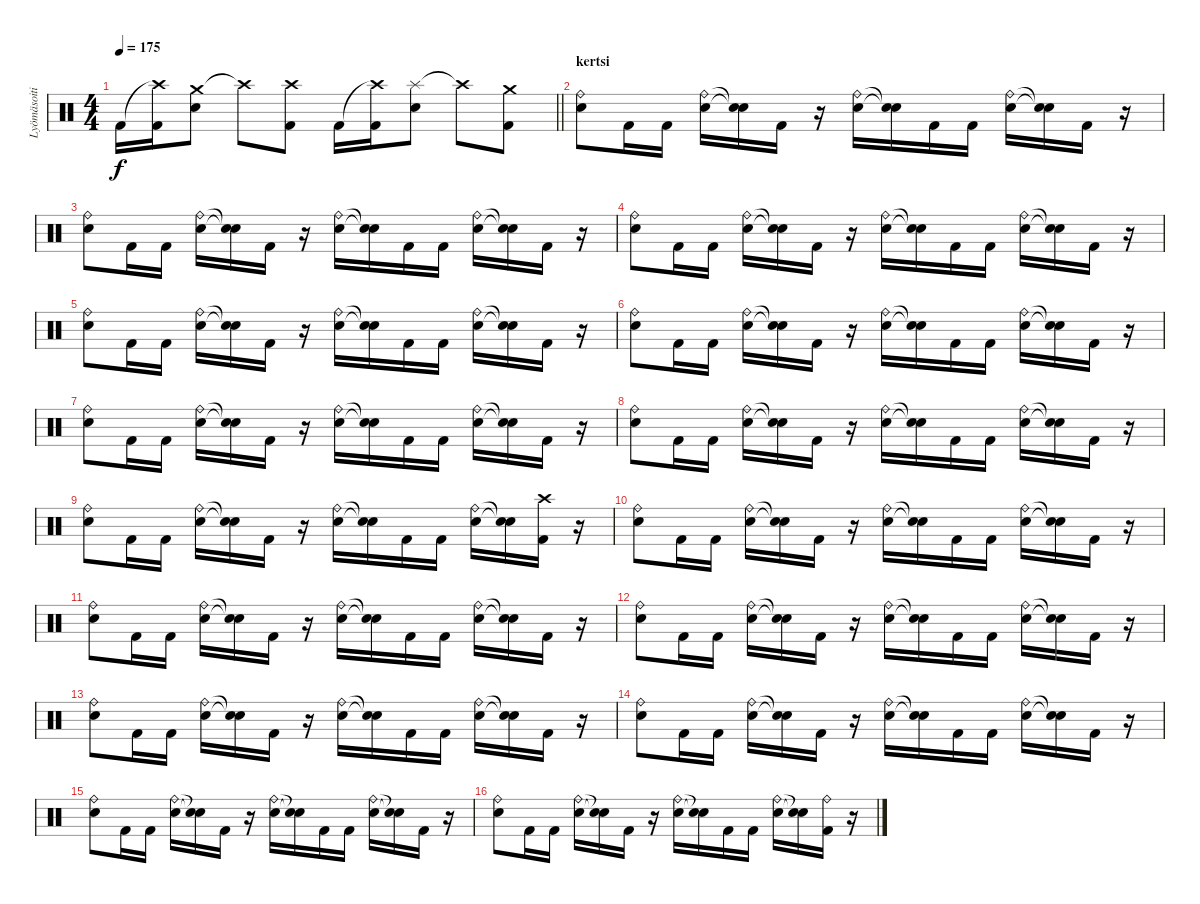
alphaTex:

\track ("Lyömäsoitin" "Lyömäsoiti") {instrument percussion}
\staff {score}
\articulation defaults
\ts (4 4)
\tempo 175
\clef neutral
\barLineRight lightlight
\ks c "Kick (hit) 2".16{dy f}
("Crash high (hit)"{t} "Kick (hit) 2").16 ("Crash medium (hit)" "Electric Snare (hit)").8 "Crash high (hit)"{t}.8 ("Crash high (hit)" "Kick (hit) 2").8 "Kick (hit) 2".16 ("Crash high (hit)"{t} "Kick (hit) 2").16 ("Splash (hit)" "Electric Snare (hit)").8 "Crash high (hit)"{t}.8 ("Crash medium (hit)" "Kick (hit) 2").8 |
\section ("" "kertsi")
("Electric Snare (hit)" "Ride (bell)").8 "Kick (hit) 2".16 "Kick (hit) 2".16 ("Electric Snare (hit)" "Ride (bell)").16 ("Snare (hit)"{t} "Snare (hit)"{t}).16 "Kick (hit) 2".16 r.16 ("Electric Snare (hit)" "Ride (bell)").16 ("Snare (hit)"{t} "Snare (hit)"{t}).16 "Kick (hit) 2".16 "Kick (hit) 2".16 ("Electric Snare (hit)" "Ride (bell)").16 ("Snare (hit)"{t} "Snare (hit)"{t}).16 "Kick (hit) 2".16 r.16 |
("Electric Snare (hit)" "Ride (bell)").8 "Kick (hit) 2".16 "Kick (hit) 2".16 ("Electric Snare (hit)" "Ride (bell)").16 ("Snare (hit)"{t} "Snare (hit)"{t}).16 "Kick (hit) 2".16 r.16 ("Electric Snare (hit)" "Ride (bell)").16 ("Snare (hit)"{t} "Snare (hit)"{t}).16 "Kick (hit) 2".16 "Kick (hit) 2".16 ("Electric Snare (hit)" "Ride (bell)").16 ("Snare (hit)"{t} "Snare (hit)"{t}).16 "Kick (hit) 2".16 r.16 |
("Electric Snare (hit)" "Ride (bell)").8 "Kick (hit) 2".16 "Kick (hit) 2".16 ("Electric Snare (hit)" "Ride (bell)").16 ("Snare (hit)"{t} "Snare (hit)"{t}).16 "Kick (hit) 2".16 r.16 ("Electric Snare (hit)" "Ride (bell)").16 ("Snare (hit)"{t} "Snare (hit)"{t}).16 "Kick (hit) 2".16 "Kick (hit) 2".16 ("Electric Snare (hit)" "Ride (bell)").16 ("Snare (hit)"{t} "Snare (hit)"{t}).16 "Kick (hit) 2".16 r.16 |
("Electric Snare (hit)" "Ride (bell)").8 "Kick (hit) 2".16 "Kick (hit) 2".16 ("Electric Snare (hit)" "Ride (bell)").16 ("Snare (hit)"{t} "Snare (hit)"{t}).16 "Kick (hit) 2".16 r.16 ("Electric Snare (hit)" "Ride (bell)").16 ("Snare (hit)"{t} "Snare (hit)"{t}).16 "Kick (hit) 2".16 "Kick (hit) 2".16 ("Electric Snare (hit)" "Ride (bell)").16 ("Snare (hit)"{t} "Snare (hit)"{t}).16 "Kick (hit) 2".16 r.16 |
("Electric Snare (hit)" "Ride (bell)").8 "Kick (hit) 2".16 "Kick (hit) 2".16 ("Electric Snare (hit)" "Ride (bell)").16 ("Snare (hit)"{t} "Snare (hit)"{t}).16 "Kick (hit) 2".16 r.16 ("Electric Snare (hit)" "Ride (bell)").16 ("Snare (hit)"{t} "Snare (hit)"{t}).16 "Kick (hit) 2".16 "Kick (hit) 2".16 ("Electric Snare (hit)" "Ride (bell)").16 ("Snare (hit)"{t} "Snare (hit)"{t}).16 "Kick (hit) 2".16 r.16 |
("Electric Snare (hit)" "Ride (bell)").8 "Kick (hit) 2".16 "Kick (hit) 2".16 ("Electric Snare (hit)" "Ride (bell)").16 ("Snare (hit)"{t} "Snare (hit)"{t}).16 "Kick (hit) 2".16 r.16 ("Electric Snare (hit)" "Ride (bell)").16 ("Snare (hit)"{t} "Snare (hit)"{t}).16 "Kick (hit) 2".16 "Kick (hit) 2".16 ("Electric Snare (hit)" "Ride (bell)").16 ("Snare (hit)"{t} "Snare (hit)"{t}).16 "Kick (hit) 2".16 r.16 |
("Electric Snare (hit)" "Ride (bell)").8 "Kick (hit) 2".16 "Kick (hit) 2".16 ("Electric Snare (hit)" "Ride (bell)").16 ("Snare (hit)"{t} "Snare (hit)"{t}).16 "Kick (hit) 2".16 r.16 ("Electric Snare (hit)" "Ride (bell)").16 ("Snare (hit)"{t} "Snare (hit)"{t}).16 "Kick (hit) 2".16 "Kick (hit) 2".16 ("Electric Snare (hit)" "Ride (bell)").16 ("Snare (hit)"{t} "Snare (hit)"{t}).16 "Kick (hit) 2".16 r.16 |
("Electric Snare (hit)" "Ride (bell)").8 "Kick (hit) 2".16 "Kick (hit) 2".16 ("Electric Snare (hit)" "Ride (bell)").16 ("Snare (hit)"{t} "Snare (hit)"{t}).16 "Kick (hit) 2".16 r.16 ("Electric Snare (hit)" "Ride (bell)").16 ("Snare (hit)"{t} "Snare (hit)"{t}).16 "Kick (hit) 2".16 "Kick (hit) 2".16 ("Electric Snare (hit)" "Ride (bell)").16 ("Snare (hit)"{t} "Snare (hit)"{t}).16 ("Crash high (hit)" "Kick (hit) 2").16 r.16 |
("Electric Snare (hit)" "Ride (bell)").8 "Kick (hit) 2".16 "Kick (hit) 2".16 ("Electric Snare (hit)" "Ride (bell)").16 ("Snare (hit)"{t} "Snare (hit)"{t}).16 "Kick (hit) 2".16 r.16 ("Electric Snare (hit)" "Ride (bell)").16 ("Snare (hit)"{t} "Snare (hit)"{t}).16 "Kick (hit) 2".16 "Kick (hit) 2".16 ("Electric Snare (hit)" "Ride (bell)").16 ("Snare (hit)"{t} "Snare (hit)"{t}).16 "Kick (hit) 2".16 r.16 |
("Electric Snare (hit)" "Ride (bell)").8 "Kick (hit) 2".16 "Kick (hit) 2".16 ("Electric Snare (hit)" "Ride (bell)").16 ("Snare (hit)"{t} "Snare (hit)"{t}).16 "Kick (hit) 2".16 r.16 ("Electric Snare (hit)" "Ride (bell)").16 ("Snare (hit)"{t} "Snare (hit)"{t}).16 "Kick (hit) 2".16 "Kick (hit) 2".16 ("Electric Snare (hit)" "Ride (bell)").16 ("Snare (hit)"{t} "Snare (hit)"{t}).16 "Kick (hit) 2".16 r.16 |
("Electric Snare (hit)" "Ride (bell)").8 "Kick (hit) 2".16 "Kick (hit) 2".16 ("Electric Snare (hit)" "Ride (bell)").16 ("Snare (hit)"{t} "Snare (hit)"{t}).16 "Kick (hit) 2".16 r.16 ("Electric Snare (hit)" "Ride (bell)").16 ("Snare (hit)"{t} "Snare (hit)"{t}).16 "Kick (hit) 2".16 "Kick (hit) 2".16 ("Electric Snare (hit)" "Ride (bell)").16 ("Snare (hit)"{t} "Snare (hit)"{t}).16 "Kick (hit) 2".16 r.16 |
("Electric Snare (hit)" "Ride (bell)").8 "Kick (hit) 2".16 "Kick (hit) 2".16 ("Electric Snare (hit)" "Ride (bell)").16 ("Snare (hit)"{t} "Snare (hit)"{t}).16 "Kick (hit) 2".16 r.16 ("Electric Snare (hit)" "Ride (bell)").16 ("Snare (hit)"{t} "Snare (hit)"{t}).16 "Kick (hit) 2".16 "Kick (hit) 2".16 ("Electric Snare (hit)" "Ride (bell)").16 ("Snare (hit)"{t} "Snare (hit)"{t}).16 "Kick (hit) 2".16 r.16 |
("Electric Snare (hit)" "Ride (bell)").8 "Kick (hit) 2".16 "Kick (hit) 2".16 ("Electric Snare (hit)" "Ride (bell)").16 ("Snare (hit)"{t} "Snare (hit)"{t}).16 "Kick (hit) 2".16 r.16 ("Electric Snare (hit)" "Ride (bell)").16 ("Snare (hit)"{t} "Snare (hit)"{t}).16 "Kick (hit) 2".16 "Kick (hit) 2".16 ("Electric Snare (hit)" "Ride (bell)").16 ("Snare (hit)"{t} "Snare (hit)"{t}).16 "Kick (hit) 2".16 r.16 |
("Electric Snare (hit)" "Ride (bell)").8 "Kick (hit) 2".16 "Kick (hit) 2".16 ("Electric Snare (hit)" "Ride (bell)").16 ("Snare (hit)"{t} "Snare (hit)"{t}).16 "Kick (hit) 2".16 r.16 ("Electric Snare (hit)" "Ride (bell)").16 ("Snare (hit)"{t} "Snare (hit)"{t}).16 "Kick (hit) 2".16 "Kick (hit) 2".16 ("Electric Snare (hit)" "Ride (bell)").16 ("Snare (hit)"{t} "Snare (hit)"{t}).16 "Kick (hit) 2".16 r.16 |
("Electric Snare (hit)" "Ride (bell)").8 "Kick (hit) 2".16 "Kick (hit) 2".16 ("Electric Snare (hit)" "Ride (bell)").16 ("Snare (hit)"{t} "Snare (hit)"{t}).16 "Kick (hit) 2".16 r.16 ("Electric Snare (hit)" "Ride (bell)").16 ("Snare (hit)"{t} "Snare (hit)"{t}).16 "Kick (hit) 2".16 "Kick (hit) 2".16 ("Electric Snare (hit)" "Ride (bell)").16 ("Snare (hit)"{t} "Snare (hit)"{t}).16 ("Ride (bell)" "Kick (hit) 2").16 r.16
